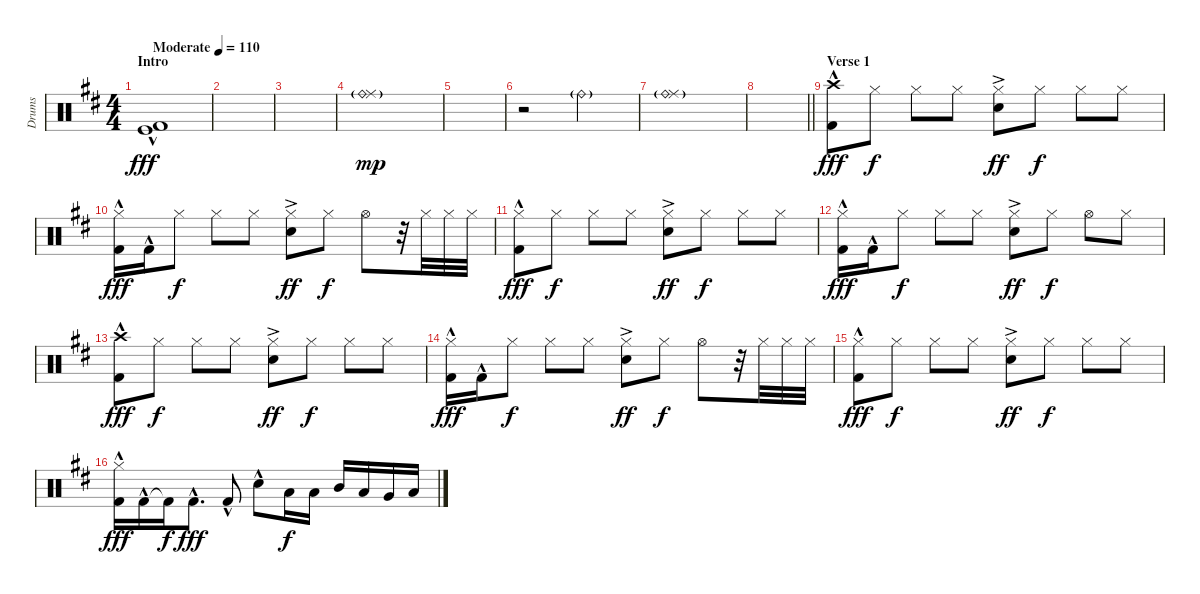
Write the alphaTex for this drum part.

\track ("Drums" "Drums") {instrument percussion}
\staff {score}
\articulation defaults
\ts (4 4)
\section ("" "Intro")
\tempo (110 "Moderate")
\clef neutral
\ks d
("Kick (hit)"{hac} "Kick (hit) 2"{hac}).1{dy fff} |
|
|
("Ride (middle)"{g} "Ride (bell)"{g}).1{dy mp} |
|
r.2 "Ride (bell)"{g}.2 |
("Ride (middle)"{g} "Ride (bell)"{g}).1 |
\barLineRight lightlight
|
\section ("" "Verse 1")
("Crash high (hit)" "Kick (hit) 2"{hac}).8{dy fff} "Hi-Hat (closed)".8{dy f} "Hi-Hat (closed)".8 "Hi-Hat (closed)".8 ("Snare (hit) 2"{ac} "Hi-Hat (closed)").8{dy ff} "Hi-Hat (closed)".8{dy f} "Hi-Hat (closed)".8 "Hi-Hat (closed)".8 |
("Hi-Hat (closed)" "Kick (hit) 2"{hac}).16{dy fff} "Kick (hit) 2"{hac}.16 "Hi-Hat (closed)".8{dy f} "Hi-Hat (closed)".8 "Hi-Hat (closed)".8 ("Snare (hit) 2"{ac} "Hi-Hat (closed)").8{dy ff} "Hi-Hat (closed)".8{dy f} "Hi-Hat (open)".8 r.32 "Hi-Hat (closed)".32 "Hi-Hat (closed)".32 "Hi-Hat (closed)".32 |
("Hi-Hat (closed)" "Kick (hit) 2"{hac}).8{dy fff} "Hi-Hat (closed)".8{dy f} "Hi-Hat (closed)".8 "Hi-Hat (closed)".8 ("Snare (hit) 2"{ac} "Hi-Hat (closed)").8{dy ff} "Hi-Hat (closed)".8{dy f} "Hi-Hat (closed)".8 "Hi-Hat (closed)".8 |
("Hi-Hat (closed)" "Kick (hit) 2"{hac}).16{dy fff} "Kick (hit) 2"{hac}.16 "Hi-Hat (closed)".8{dy f} "Hi-Hat (closed)".8 "Hi-Hat (closed)".8 ("Snare (hit) 2"{ac} "Hi-Hat (closed)").8{dy ff} "Hi-Hat (closed)".8{dy f} "Hi-Hat (open)".8 "Hi-Hat (closed)".8 |
("Crash high (hit)" "Kick (hit) 2"{hac}).8{dy fff} "Hi-Hat (closed)".8{dy f} "Hi-Hat (closed)".8 "Hi-Hat (closed)".8 ("Snare (hit) 2"{ac} "Hi-Hat (closed)").8{dy ff} "Hi-Hat (closed)".8{dy f} "Hi-Hat (closed)".8 "Hi-Hat (closed)".8 |
("Hi-Hat (closed)" "Kick (hit) 2"{hac}).16{dy fff} "Kick (hit) 2"{hac}.16 "Hi-Hat (closed)".8{dy f} "Hi-Hat (closed)".8 "Hi-Hat (closed)".8 ("Snare (hit) 2"{ac} "Hi-Hat (closed)").8{dy ff} "Hi-Hat (closed)".8{dy f} "Hi-Hat (open)".8 r.32 "Hi-Hat (closed)".32 "Hi-Hat (closed)".32 "Hi-Hat (closed)".32 |
("Hi-Hat (closed)" "Kick (hit) 2"{hac}).8{dy fff} "Hi-Hat (closed)".8{dy f} "Hi-Hat (closed)".8 "Hi-Hat (closed)".8 ("Snare (hit) 2"{ac} "Hi-Hat (closed)").8{dy ff} "Hi-Hat (closed)".8{dy f} "Hi-Hat (closed)".8 "Hi-Hat (closed)".8 |
("Hi-Hat (closed)" "Kick (hit) 2"{hac}).16{dy fff} "Kick (hit) 2"{hac}.16 "Kick (hit) 2"{t}.16{dy f} "Kick (hit) 2"{hac}.8{d dy fff} "Kick (hit) 2"{hac}.8 "Snare (hit) 2"{hac}.8 "Low Tom (hit)".16{dy f} "Low Tom (hit)".16 "Mid Tom (hit)".16 "Low Tom (hit)".16 "Very Low Tom (hit)".16 "Low Floor Tom (hit)".16
